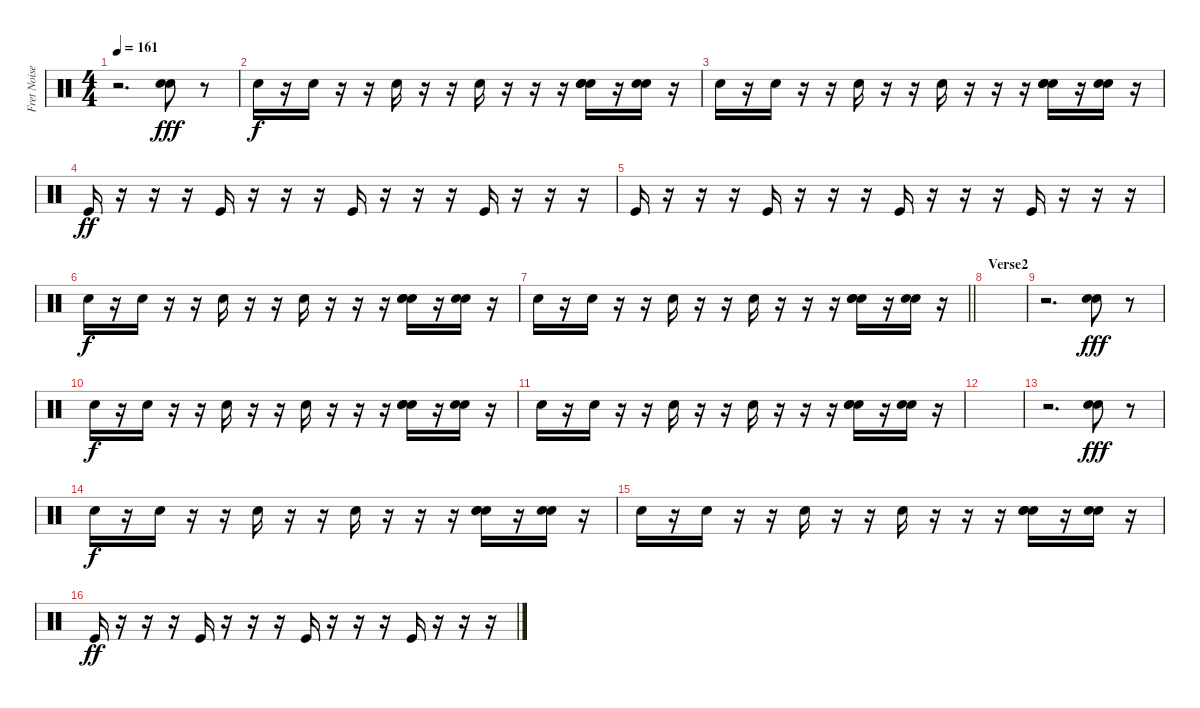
\track ("Fret Noise / Percussion(corpus)" "Fret Noise") {instrument percussion}
\staff {score}
\articulation defaults
\ts (4 4)
\tempo 161
\clef neutral
\ks c
r.2{d dy f} ("Snare (hit) 2" "Snare (hit) 2").8{dy fff} r.8 |
"Snare (hit) 2".16{dy f} r.16 "Snare (hit) 2".16 r.16 r.16 "Snare (hit) 2".16 r.16 r.16 "Snare (hit) 2".16 r.16 r.16 r.16 ("Snare (hit) 2" "Snare (hit) 2" "Snare (hit) 2").16 r.16 ("Snare (hit) 2" "Snare (hit) 2").16 r.16 |
"Snare (hit) 2".16 r.16 "Snare (hit) 2".16 r.16 r.16 "Snare (hit) 2".16 r.16 r.16 "Snare (hit) 2".16 r.16 r.16 r.16 ("Snare (hit) 2" "Snare (hit) 2" "Snare (hit) 2").16 r.16 ("Snare (hit) 2" "Snare (hit) 2").16 r.16 |
"Kick (hit)".16{dy ff} r.16 r.16 r.16 "Kick (hit)".16 r.16 r.16 r.16 "Kick (hit)".16 r.16 r.16 r.16 "Kick (hit)".16 r.16 r.16 r.16 |
"Kick (hit)".16 r.16 r.16 r.16 "Kick (hit)".16 r.16 r.16 r.16 "Kick (hit)".16 r.16 r.16 r.16 "Kick (hit)".16 r.16 r.16 r.16 |
"Snare (hit) 2".16{dy f} r.16 "Snare (hit) 2".16 r.16 r.16 "Snare (hit) 2".16 r.16 r.16 "Snare (hit) 2".16 r.16 r.16 r.16 ("Snare (hit) 2" "Snare (hit) 2" "Snare (hit) 2").16 r.16 ("Snare (hit) 2" "Snare (hit) 2").16 r.16 |
\barLineRight lightlight "Snare (hit) 2".16
r.16 "Snare (hit) 2".16 r.16 r.16 "Snare (hit) 2".16 r.16 r.16 "Snare (hit) 2".16 r.16 r.16 r.16 ("Snare (hit) 2" "Snare (hit) 2" "Snare (hit) 2").16 r.16 ("Snare (hit) 2" "Snare (hit) 2").16 r.16 |
\section ("" "Verse2")
|
r.2{d} ("Snare (hit) 2" "Snare (hit) 2").8{dy fff} r.8 |
"Snare (hit) 2".16{dy f} r.16 "Snare (hit) 2".16 r.16 r.16 "Snare (hit) 2".16 r.16 r.16 "Snare (hit) 2".16 r.16 r.16 r.16 ("Snare (hit) 2" "Snare (hit) 2" "Snare (hit) 2").16 r.16 ("Snare (hit) 2" "Snare (hit) 2").16 r.16 |
"Snare (hit) 2".16 r.16 "Snare (hit) 2".16 r.16 r.16 "Snare (hit) 2".16 r.16 r.16 "Snare (hit) 2".16 r.16 r.16 r.16 ("Snare (hit) 2" "Snare (hit) 2" "Snare (hit) 2").16 r.16 ("Snare (hit) 2" "Snare (hit) 2").16 r.16 |
|
r.2{d} ("Snare (hit) 2" "Snare (hit) 2").8{dy fff} r.8 |
"Snare (hit) 2".16{dy f} r.16 "Snare (hit) 2".16 r.16 r.16 "Snare (hit) 2".16 r.16 r.16 "Snare (hit) 2".16 r.16 r.16 r.16 ("Snare (hit) 2" "Snare (hit) 2" "Snare (hit) 2").16 r.16 ("Snare (hit) 2" "Snare (hit) 2").16 r.16 |
"Snare (hit) 2".16 r.16 "Snare (hit) 2".16 r.16 r.16 "Snare (hit) 2".16 r.16 r.16 "Snare (hit) 2".16 r.16 r.16 r.16 ("Snare (hit) 2" "Snare (hit) 2" "Snare (hit) 2").16 r.16 ("Snare (hit) 2" "Snare (hit) 2").16 r.16 |
"Kick (hit)".16{dy ff} r.16 r.16 r.16 "Kick (hit)".16 r.16 r.16 r.16 "Kick (hit)".16 r.16 r.16 r.16 "Kick (hit)".16 r.16 r.16 r.16
